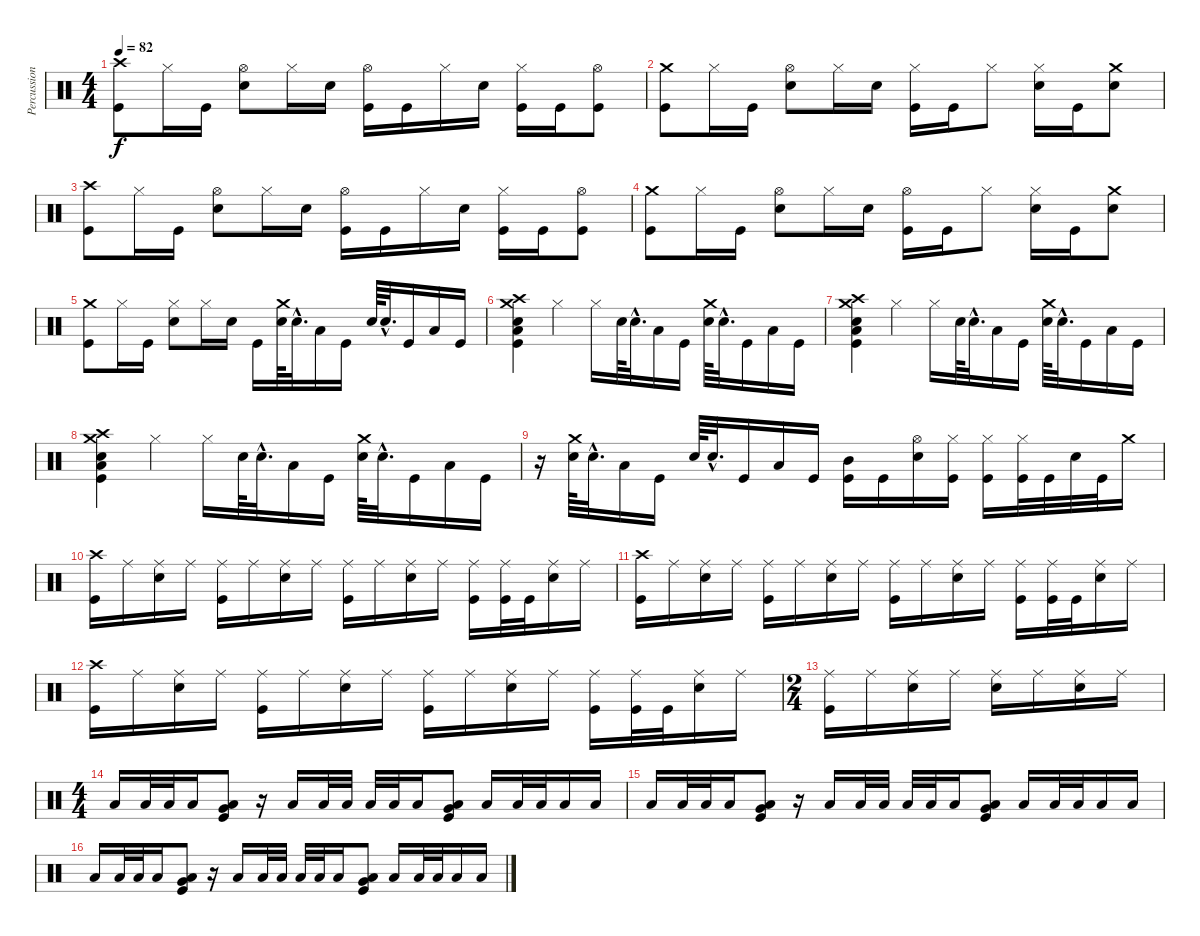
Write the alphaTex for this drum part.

\track ("Percussion" "Percussion") {instrument percussion}
\staff {score}
\articulation defaults
\ts (4 4)
\tempo 82
\clef neutral
\ks c
("Crash high (hit)" "Kick (hit)").8{dy f} "Hi-Hat (closed)".16 "Kick (hit)".16 ("Hi-Hat (open)" "Snare (hit) 2").8 "Hi-Hat (closed)".16 "Snare (hit) 2".16 ("Hi-Hat (open)" "Kick (hit)").16 "Kick (hit)".16 "Hi-Hat (closed)".16 "Snare (hit) 2".16 ("Hi-Hat (closed)" "Kick (hit)").16 "Kick (hit)".16 ("Hi-Hat (open)" "Kick (hit)").8 |
("Crash medium (hit)" "Kick (hit)").8 "Hi-Hat (closed)".16 "Kick (hit)".16 ("Hi-Hat (open)" "Snare (hit) 2").8 "Hi-Hat (closed)".16 "Snare (hit) 2".16 ("Hi-Hat (closed)" "Kick (hit)").16 "Kick (hit)".16 "Hi-Hat (closed)".8 ("Hi-Hat (closed)" "Snare (hit) 2").16 "Kick (hit)".16 ("Crash medium (hit)" "Snare (hit) 2").8 |
("Crash high (hit)" "Kick (hit)").8 "Hi-Hat (closed)".16 "Kick (hit)".16 ("Hi-Hat (open)" "Snare (hit) 2").8 "Hi-Hat (closed)".16 "Snare (hit) 2".16 ("Hi-Hat (open)" "Kick (hit)").16 "Kick (hit)".16 "Hi-Hat (closed)".16 "Snare (hit) 2".16 ("Hi-Hat (closed)" "Kick (hit)").16 "Kick (hit)".16 ("Hi-Hat (open)" "Kick (hit)").8 |
("Crash medium (hit)" "Kick (hit)").8 "Hi-Hat (closed)".16 "Kick (hit)".16 ("Hi-Hat (open)" "Snare (hit) 2").8 "Hi-Hat (closed)".16 "Snare (hit) 2".16 ("Hi-Hat (open)" "Kick (hit)").16 "Kick (hit)".16 "Hi-Hat (closed)".8 ("Hi-Hat (closed)" "Snare (hit) 2").16 "Kick (hit)".16 ("Crash medium (hit)" "Snare (hit) 2").8 |
("Crash medium (hit)" "Kick (hit)").8 "Hi-Hat (closed)".16 "Kick (hit)".16 ("Hi-Hat (closed)" "Snare (hit) 2").8 "Hi-Hat (closed)".16 "Snare (hit) 2".16 "Kick (hit)".16 ("Crash medium (hit)" "Snare (hit) 2").64 "Snare (hit) 2"{hac}.32{d} "Low Tom (hit)".16 "Kick (hit)".16 "Snare (hit) 2".64 "Snare (hit) 2"{hac}.32{d} "Kick (hit)".16 "Low Tom (hit)".16 "Kick (hit)".16 |
("Crash medium (hit)" "Crash high (hit)" "Snare (hit) 2" "Low Tom (hit)" "Kick (hit)").4 "Hi-Hat (closed)".4 "Hi-Hat (closed)".16 "Snare (hit) 2".64 "Snare (hit) 2"{hac}.32{d} "Low Tom (hit)".16 "Kick (hit)".16 ("Crash medium (hit)" "Snare (hit) 2").64 "Snare (hit) 2"{hac}.32{d} "Kick (hit)".16 "Low Tom (hit)".16 "Kick (hit)".16 |
("Crash medium (hit)" "Crash high (hit)" "Snare (hit) 2" "Low Tom (hit)" "Kick (hit)").4 "Hi-Hat (closed)".4 "Hi-Hat (closed)".16 "Snare (hit) 2".64 "Snare (hit) 2"{hac}.32{d} "Low Tom (hit)".16 "Kick (hit)".16 ("Crash medium (hit)" "Snare (hit) 2").64 "Snare (hit) 2"{hac}.32{d} "Kick (hit)".16 "Low Tom (hit)".16 "Kick (hit)".16 |
("Crash medium (hit)" "Crash high (hit)" "Snare (hit) 2" "Low Tom (hit)" "Kick (hit)").4 "Hi-Hat (closed)".4 "Hi-Hat (closed)".16 "Snare (hit) 2".64 "Snare (hit) 2"{hac}.32{d} "Low Tom (hit)".16 "Kick (hit)".16 ("Crash medium (hit)" "Snare (hit) 2").64 "Snare (hit) 2"{hac}.32{d} "Kick (hit)".16 "Low Tom (hit)".16 "Kick (hit)".16 |
r.16 ("Crash medium (hit)" "Snare (hit) 2").64 "Snare (hit) 2"{hac}.32{d} "Low Tom (hit)".16 "Kick (hit)".16 "Snare (hit) 2".64 "Snare (hit) 2"{hac}.32{d} "Kick (hit)".16 "Low Tom (hit)".16 "Kick (hit)".16 ("Mid Tom (hit)" "Kick (hit)").16 "Kick (hit)".16 ("Hi-Hat (open)" "Snare (hit) 2").16 ("Hi-Hat (closed)" "Kick (hit)").16 ("Hi-Hat (closed)" "Kick (hit)").16 ("Hi-Hat (closed)" "Kick (hit)").32 "Kick (hit)".32 "Snare (hit) 2".32 "Kick (hit)".32 "Crash medium (hit)".16 |
("Crash high (hit)" "Kick (hit)").16 "Ride (middle)".16 ("Ride (middle)" "Snare (hit) 2").16 "Ride (middle)".16 ("Ride (middle)" "Kick (hit)").16 "Ride (middle)".16 ("Ride (middle)" "Snare (hit) 2").16 "Ride (middle)".16 ("Ride (middle)" "Kick (hit)").16 "Ride (middle)".16 ("Ride (middle)" "Snare (hit) 2").16 "Ride (middle)".16 ("Ride (middle)" "Kick (hit)").16 ("Ride (middle)" "Kick (hit)").32 "Kick (hit)".32 ("Ride (middle)" "Snare (hit) 2").16 "Ride (middle)".16 |
("Crash high (hit)" "Kick (hit)").16 "Ride (middle)".16 ("Ride (middle)" "Snare (hit) 2").16 "Ride (middle)".16 ("Ride (middle)" "Kick (hit)").16 "Ride (middle)".16 ("Ride (middle)" "Snare (hit) 2").16 "Ride (middle)".16 ("Ride (middle)" "Kick (hit)").16 "Ride (middle)".16 ("Ride (middle)" "Snare (hit) 2").16 "Ride (middle)".16 ("Ride (middle)" "Kick (hit)").16 ("Ride (middle)" "Kick (hit)").32 "Kick (hit)".32 ("Ride (middle)" "Snare (hit) 2").16 "Ride (middle)".16 |
("Crash high (hit)" "Kick (hit)").16 "Ride (middle)".16 ("Ride (middle)" "Snare (hit) 2").16 "Ride (middle)".16 ("Ride (middle)" "Kick (hit)").16 "Ride (middle)".16 ("Ride (middle)" "Snare (hit) 2").16 "Ride (middle)".16 ("Ride (middle)" "Kick (hit)").16 "Ride (middle)".16 ("Ride (middle)" "Snare (hit) 2").16 "Ride (middle)".16 ("Ride (middle)" "Kick (hit)").16 ("Ride (middle)" "Kick (hit)").32 "Kick (hit)".32 ("Ride (middle)" "Snare (hit) 2").16 "Ride (middle)".16 |
\ts (2 4)
("Ride (middle)" "Kick (hit)").16 "Ride (middle)".16 ("Ride (middle)" "Snare (hit) 2").16 "Ride (middle)".16 ("Ride (middle)" "Snare (hit) 2").16 "Ride (middle)".16 ("Ride (middle)" "Snare (hit) 2").16 "Ride (middle)".16 |
\ts (4 4)
"Low Tom (hit)".16 "Low Tom (hit)".32 "Low Tom (hit)".32 "Low Tom (hit)".16 ("Very Low Tom (hit)" "Low Tom (hit)" "Kick (hit)").8 r.16 "Low Tom (hit)".16 "Low Tom (hit)".32 "Low Tom (hit)".32 "Low Tom (hit)".32 "Low Tom (hit)".32 "Low Tom (hit)".16 ("Very Low Tom (hit)" "Low Tom (hit)" "Kick (hit)").8 "Low Tom (hit)".16 "Low Tom (hit)".32 "Low Tom (hit)".32 "Low Tom (hit)".16 "Low Tom (hit)".16 |
"Low Tom (hit)".16 "Low Tom (hit)".32 "Low Tom (hit)".32 "Low Tom (hit)".16 ("Very Low Tom (hit)" "Low Tom (hit)" "Kick (hit)").8 r.16 "Low Tom (hit)".16 "Low Tom (hit)".32 "Low Tom (hit)".32 "Low Tom (hit)".32 "Low Tom (hit)".32 "Low Tom (hit)".16 ("Very Low Tom (hit)" "Low Tom (hit)" "Kick (hit)").8 "Low Tom (hit)".16 "Low Tom (hit)".32 "Low Tom (hit)".32 "Low Tom (hit)".16 "Low Tom (hit)".16 |
"Low Tom (hit)".16 "Low Tom (hit)".32 "Low Tom (hit)".32 "Low Tom (hit)".16 ("Very Low Tom (hit)" "Low Tom (hit)" "Kick (hit)").8 r.16 "Low Tom (hit)".16 "Low Tom (hit)".32 "Low Tom (hit)".32 "Low Tom (hit)".32 "Low Tom (hit)".32 "Low Tom (hit)".16 ("Very Low Tom (hit)" "Low Tom (hit)" "Kick (hit)").8 "Low Tom (hit)".16 "Low Tom (hit)".32 "Low Tom (hit)".32 "Low Tom (hit)".16 "Low Tom (hit)".16
